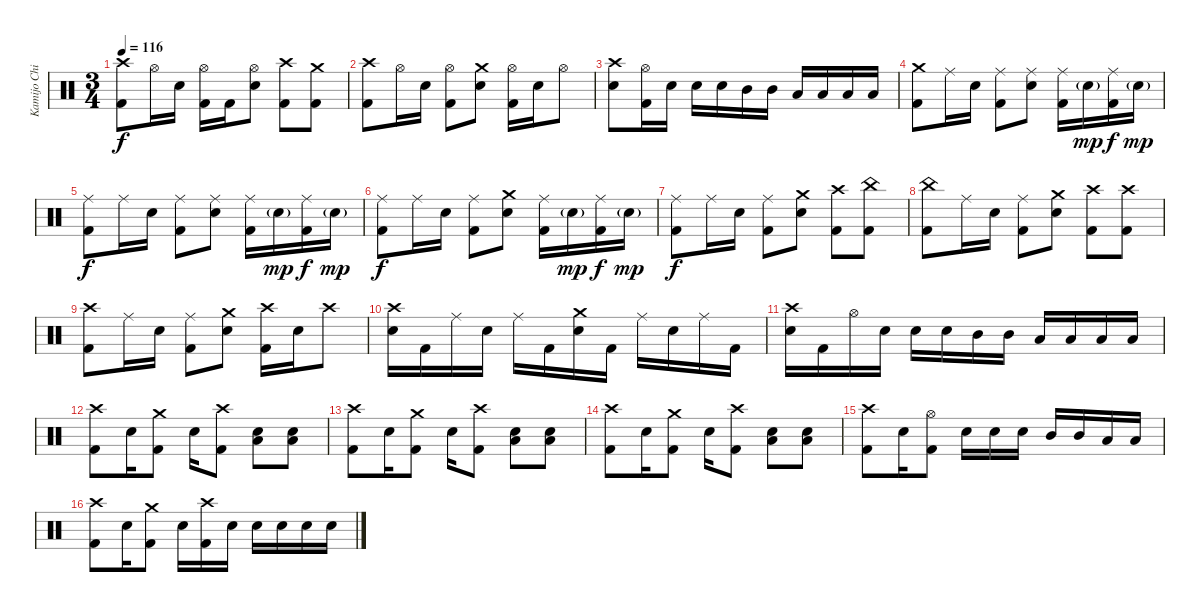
\track ("Kamijo Chihiro" "Kamijo Chi") {instrument percussion}
\staff {score}
\articulation defaults
\ts (3 4)
\tempo 116
\clef neutral
\ks c
("Crash high (hit)" "Kick (hit) 2").8{dy f} "Hi-Hat (open)".16 "Snare (hit) 2".16 ("Hi-Hat (open)" "Kick (hit) 2").16 "Kick (hit) 2".16 ("Hi-Hat (open)" "Snare (hit) 2").8 ("Crash high (hit)" "Kick (hit) 2").8 ("Crash medium (hit)" "Kick (hit) 2").8 |
("Crash high (hit)" "Kick (hit) 2").8 "Hi-Hat (open)".16 "Snare (hit) 2".16 ("Hi-Hat (open)" "Kick (hit) 2").8 ("Crash medium (hit)" "Snare (hit) 2").8 ("Hi-Hat (open)" "Kick (hit) 2").16 "Snare (hit) 2".16 "Hi-Hat (open)".8 |
("Crash high (hit)" "Snare (hit) 2").8 ("Hi-Hat (open)" "Kick (hit) 2").16 "Snare (hit) 2".16 "Snare (hit) 2".16 "Snare (hit) 2".16 "Mid Tom (hit)".16 "Mid Tom (hit)".16 "Low Tom (hit)".16 "Low Tom (hit)".16 "Low Floor Tom (hit)".16 "Low Floor Tom (hit)".16 |
("Crash medium (hit)" "Kick (hit) 2").8 "Ride (middle)".16 "Snare (hit) 2".16 ("Ride (middle)" "Kick (hit) 2").8 ("Ride (middle)" "Snare (hit) 2").8 ("Ride (middle)" "Kick (hit) 2").16 "Snare (hit) 2"{g}.16{dy mp} ("Ride (middle)" "Kick (hit) 2").16{dy f} "Snare (hit) 2"{g}.16{dy mp} |
("Ride (middle)" "Kick (hit) 2").8{dy f} "Ride (middle)".16 "Snare (hit) 2".16 ("Ride (middle)" "Kick (hit) 2").8 ("Ride (middle)" "Snare (hit) 2").8 ("Ride (middle)" "Kick (hit) 2").16 "Snare (hit) 2"{g}.16{dy mp} ("Ride (middle)" "Kick (hit) 2").16{dy f} "Snare (hit) 2"{g}.16{dy mp} |
("Ride (middle)" "Kick (hit) 2").8{dy f} "Ride (middle)".16 "Snare (hit) 2".16 ("Ride (middle)" "Kick (hit) 2").8 ("Crash medium (hit)" "Snare (hit) 2").8 ("Ride (middle)" "Kick (hit) 2").16 "Snare (hit) 2"{g}.16{dy mp} ("Ride (middle)" "Kick (hit) 2").16{dy f} "Snare (hit) 2"{g}.16{dy mp} |
("Ride (middle)" "Kick (hit) 2").8{dy f} "Ride (middle)".16 "Snare (hit) 2".16 ("Ride (middle)" "Kick (hit) 2").8 ("Crash medium (hit)" "Snare (hit) 2").8 ("Crash high (hit)" "Kick (hit) 2").8 ("China (hit)" "Kick (hit) 2").8 |
("China (hit)" "Kick (hit) 2").8 "Ride (middle)".16 "Snare (hit) 2".16 ("Ride (middle)" "Kick (hit) 2").8 ("Crash medium (hit)" "Snare (hit) 2").8 ("Crash high (hit)" "Kick (hit) 2").8 ("Crash high (hit)" "Kick (hit) 2").8 |
("Crash high (hit)" "Kick (hit) 2").8 "Ride (middle)".16 "Snare (hit) 2".16 ("Ride (middle)" "Kick (hit) 2").8 ("Crash medium (hit)" "Snare (hit) 2").8 ("Crash high (hit)" "Kick (hit) 2").16 "Snare (hit) 2".16 "Crash high (hit)".8 |
("Crash high (hit)" "Snare (hit) 2").16 "Kick (hit) 2".16 "Ride (middle)".16 "Snare (hit) 2".16 "Ride (middle)".16 "Kick (hit) 2".16 ("Crash medium (hit)" "Snare (hit) 2").16 "Kick (hit) 2".16 "Ride (middle)".16 "Snare (hit) 2".16 "Ride (middle)".16 "Kick (hit) 2".16 |
("Crash high (hit)" "Snare (hit) 2").16 "Kick (hit) 2".16 "Hi-Hat (open)".16 "Snare (hit) 2".16 "Snare (hit) 2".16 "Snare (hit) 2".16 "Mid Tom (hit)".16 "Mid Tom (hit)".16 "Low Tom (hit)".16 "Low Tom (hit)".16 "Low Floor Tom (hit)".16 "Low Floor Tom (hit)".16 |
("Crash high (hit)" "Kick (hit) 2").8 "Snare (hit) 2".16 ("Crash medium (hit)" "Kick (hit) 2").8 "Snare (hit) 2".16 ("Crash high (hit)" "Kick (hit) 2").8 ("Snare (hit) 2" "Low Floor Tom (hit)").8 ("Snare (hit) 2" "Low Floor Tom (hit)").8 |
("Crash high (hit)" "Kick (hit) 2").8 "Snare (hit) 2".16 ("Crash medium (hit)" "Kick (hit) 2").8 "Snare (hit) 2".16 ("Crash high (hit)" "Kick (hit) 2").8 ("Snare (hit) 2" "Low Floor Tom (hit)").8 ("Snare (hit) 2" "Low Floor Tom (hit)").8 |
("Crash high (hit)" "Kick (hit) 2").8 "Snare (hit) 2".16 ("Crash medium (hit)" "Kick (hit) 2").8 "Snare (hit) 2".16 ("Crash high (hit)" "Kick (hit) 2").8 ("Snare (hit) 2" "Low Floor Tom (hit)").8 ("Snare (hit) 2" "Low Floor Tom (hit)").8 |
("Crash high (hit)" "Kick (hit) 2").8 "Snare (hit) 2".16 ("Hi-Hat (open)" "Kick (hit) 2").8 "Snare (hit) 2".16 "Snare (hit) 2".16 "Snare (hit) 2".16 "Mid Tom (hit)".16 "Mid Tom (hit)".16 "Low Tom (hit)".16 "Low Tom (hit)".16 |
("Crash high (hit)" "Kick (hit) 2").8 "Snare (hit) 2".16 ("Crash medium (hit)" "Kick (hit) 2").8 "Snare (hit) 2".16 ("Crash high (hit)" "Kick (hit) 2").16 "Snare (hit) 2".16 "Snare (hit) 2".16 "Snare (hit) 2".16 "Snare (hit) 2".16 "Snare (hit) 2".16
